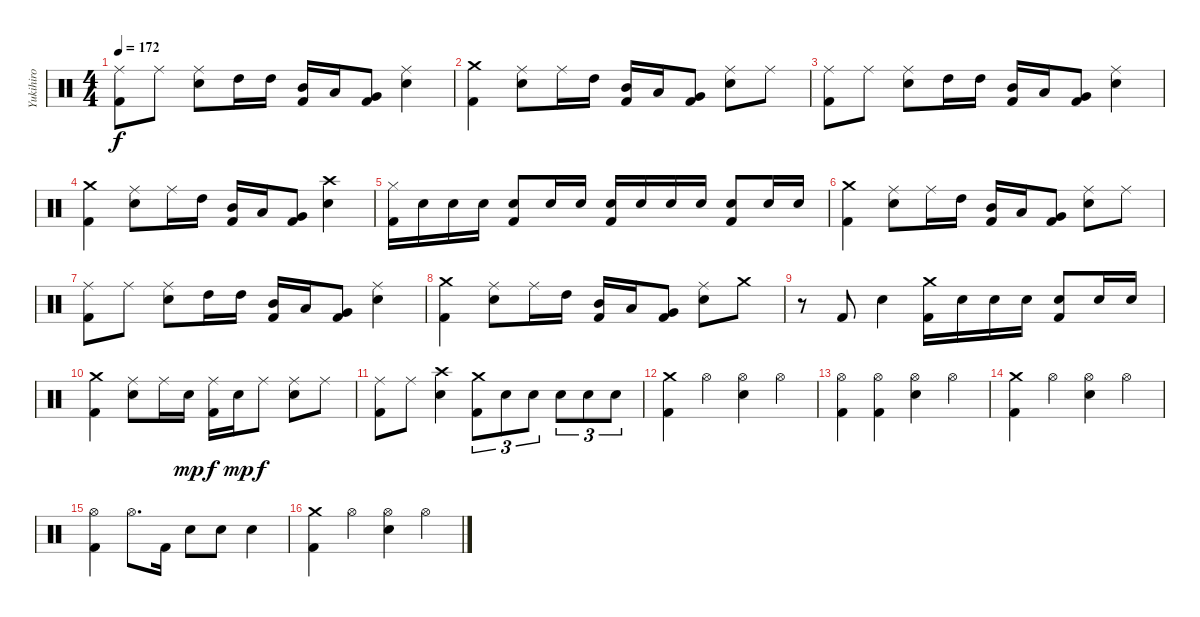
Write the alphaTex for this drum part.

\track ("Yukihiro" "Yukihiro") {instrument percussion}
\staff {score}
\articulation defaults
\ts (4 4)
\tempo 172
\clef neutral
\ks c
("Ride (middle)" "Kick (hit) 2").8{dy f} "Ride (middle)".8 ("Ride (middle)" "Electric Snare (hit)").8 "High Tom (hit)".16 "High Tom (hit)".16 ("Mid Tom (hit)" "Kick (hit) 2").16 "Low Tom (hit)".16 ("Very Low Tom (hit)" "Kick (hit) 2").8 ("Ride (middle)" "Electric Snare (hit)").4 |
("Crash medium (hit)" "Kick (hit) 2").4 ("Ride (middle)" "Electric Snare (hit)").8 "Ride (middle)".16 "High Tom (hit)".16 ("Mid Tom (hit)" "Kick (hit) 2").16 "Low Tom (hit)".16 ("Very Low Tom (hit)" "Kick (hit) 2").8 ("Ride (middle)" "Electric Snare (hit)").8 "Ride (middle)".8 |
("Ride (middle)" "Kick (hit) 2").8 "Ride (middle)".8 ("Ride (middle)" "Electric Snare (hit)").8 "High Tom (hit)".16 "High Tom (hit)".16 ("Mid Tom (hit)" "Kick (hit) 2").16 "Low Tom (hit)".16 ("Very Low Tom (hit)" "Kick (hit) 2").8 ("Ride (middle)" "Electric Snare (hit)").4 |
("Crash medium (hit)" "Kick (hit) 2").4 ("Ride (middle)" "Electric Snare (hit)").8 "Ride (middle)".16 "High Tom (hit)".16 ("Mid Tom (hit)" "Kick (hit) 2").16 "Low Tom (hit)".16 ("Very Low Tom (hit)" "Kick (hit) 2").8 ("Crash high (hit)" "Electric Snare (hit)").4 |
("Hi-Hat (closed)" "Kick (hit) 2").16 "Electric Snare (hit)".16 "Electric Snare (hit)".16 "Electric Snare (hit)".16 ("Electric Snare (hit)" "Kick (hit) 2").8 "Electric Snare (hit)".16 "Electric Snare (hit)".16 ("Electric Snare (hit)" "Kick (hit) 2").16 "Electric Snare (hit)".16 "Electric Snare (hit)".16 "Electric Snare (hit)".16 ("Electric Snare (hit)" "Kick (hit) 2").8 "Electric Snare (hit)".16 "Electric Snare (hit)".16 |
("Crash medium (hit)" "Kick (hit) 2").4 ("Ride (middle)" "Electric Snare (hit)").8 "Ride (middle)".16 "High Tom (hit)".16 ("Mid Tom (hit)" "Kick (hit) 2").16 "Low Tom (hit)".16 ("Very Low Tom (hit)" "Kick (hit) 2").8 ("Ride (middle)" "Electric Snare (hit)").8 "Ride (middle)".8 |
("Ride (middle)" "Kick (hit) 2").8 "Ride (middle)".8 ("Ride (middle)" "Electric Snare (hit)").8 "High Tom (hit)".16 "High Tom (hit)".16 ("Mid Tom (hit)" "Kick (hit) 2").16 "Low Tom (hit)".16 ("Very Low Tom (hit)" "Kick (hit) 2").8 ("Ride (middle)" "Electric Snare (hit)").4 |
("Crash medium (hit)" "Kick (hit) 2").4 ("Ride (middle)" "Electric Snare (hit)").8 "Ride (middle)".16 "High Tom (hit)".16 ("Mid Tom (hit)" "Kick (hit) 2").16 "Low Tom (hit)".16 ("Very Low Tom (hit)" "Kick (hit) 2").8 ("Ride (middle)" "Electric Snare (hit)").8 "Crash medium (hit)".8 |
r.8 "Kick (hit) 2".8 "Electric Snare (hit)".4 ("Crash medium (hit)" "Kick (hit) 2").16 "Electric Snare (hit)".16 "Electric Snare (hit)".16 "Electric Snare (hit)".16 ("Electric Snare (hit)" "Kick (hit) 2").8 "Electric Snare (hit)".16 "Electric Snare (hit)".16 |
("Crash medium (hit)" "Kick (hit) 2").4 ("Ride (middle)" "Electric Snare (hit)").8 "Ride (middle)".16 "Electric Snare (hit)".16{dy mp} ("Ride (middle)" "Kick (hit) 2").16{dy f} "Electric Snare (hit)".16{dy mp} "Ride (middle)".8{dy f} ("Ride (middle)" "Electric Snare (hit)").8 "Ride (middle)".8 |
("Ride (middle)" "Kick (hit) 2").8 "Ride (middle)".8 ("Crash high (hit)" "Electric Snare (hit)").4 ("Crash medium (hit)" "Kick (hit) 2").8{tu (3 2)} "Electric Snare (hit)".8{tu (3 2)} "Electric Snare (hit)".8{tu (3 2)} "Electric Snare (hit)".8{tu (3 2)} "Electric Snare (hit)".8{tu (3 2)} "Electric Snare (hit)".8{tu (3 2)} |
("Crash medium (hit)" "Kick (hit) 2").4 "Hi-Hat (open)".4 ("Hi-Hat (open)" "Electric Snare (hit)").4 "Hi-Hat (open)".4 |
("Hi-Hat (open)" "Kick (hit) 2").4 ("Hi-Hat (open)" "Kick (hit) 2").4 ("Hi-Hat (open)" "Electric Snare (hit)").4 "Hi-Hat (open)".4 |
("Crash medium (hit)" "Kick (hit) 2").4 "Hi-Hat (open)".4 ("Hi-Hat (open)" "Electric Snare (hit)").4 "Hi-Hat (open)".4 |
("Hi-Hat (open)" "Kick (hit) 2").4 "Hi-Hat (open)".8{d} "Kick (hit) 2".16 "Electric Snare (hit)".8 "Electric Snare (hit)".8 "Electric Snare (hit)".4 |
("Crash medium (hit)" "Kick (hit) 2").4 "Hi-Hat (open)".4 ("Hi-Hat (open)" "Electric Snare (hit)").4 "Hi-Hat (open)".4
